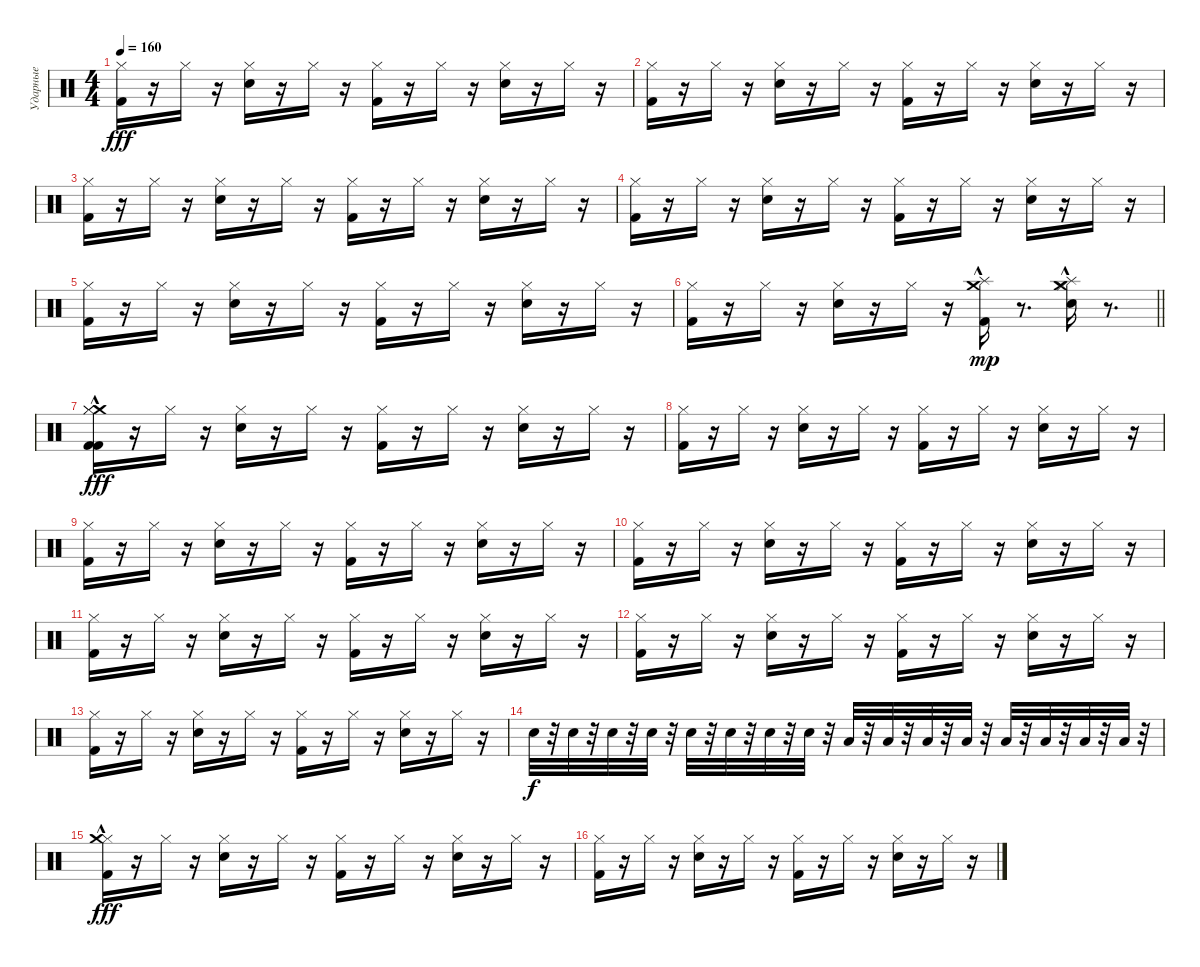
\track ("Ударные" "Ударные") {instrument percussion}
\staff {score}
\articulation defaults
\ts (4 4)
\tempo 160
\clef neutral
\ks c
("Hi-Hat (closed)" "Kick (hit) 2").16{dy fff} r.16 "Hi-Hat (closed)".16 r.16 ("Hi-Hat (closed)" "Electric Snare (hit)").16 r.16 "Hi-Hat (closed)".16 r.16 ("Hi-Hat (closed)" "Kick (hit) 2").16 r.16 "Hi-Hat (closed)".16 r.16 ("Hi-Hat (closed)" "Electric Snare (hit)").16 r.16 "Hi-Hat (closed)".16 r.16 |
("Hi-Hat (closed)" "Kick (hit) 2").16 r.16 "Hi-Hat (closed)".16 r.16 ("Hi-Hat (closed)" "Electric Snare (hit)").16 r.16 "Hi-Hat (closed)".16 r.16 ("Hi-Hat (closed)" "Kick (hit) 2").16 r.16 "Hi-Hat (closed)".16 r.16 ("Hi-Hat (closed)" "Electric Snare (hit)").16 r.16 "Hi-Hat (closed)".16 r.16 |
("Hi-Hat (closed)" "Kick (hit) 2").16 r.16 "Hi-Hat (closed)".16 r.16 ("Hi-Hat (closed)" "Electric Snare (hit)").16 r.16 "Hi-Hat (closed)".16 r.16 ("Hi-Hat (closed)" "Kick (hit) 2").16 r.16 "Hi-Hat (closed)".16 r.16 ("Hi-Hat (closed)" "Electric Snare (hit)").16 r.16 "Hi-Hat (closed)".16 r.16 |
("Hi-Hat (closed)" "Kick (hit) 2").16 r.16 "Hi-Hat (closed)".16 r.16 ("Hi-Hat (closed)" "Electric Snare (hit)").16 r.16 "Hi-Hat (closed)".16 r.16 ("Hi-Hat (closed)" "Kick (hit) 2").16 r.16 "Hi-Hat (closed)".16 r.16 ("Hi-Hat (closed)" "Electric Snare (hit)").16 r.16 "Hi-Hat (closed)".16 r.16 |
("Hi-Hat (closed)" "Kick (hit) 2").16 r.16 "Hi-Hat (closed)".16 r.16 ("Hi-Hat (closed)" "Electric Snare (hit)").16 r.16 "Hi-Hat (closed)".16 r.16 ("Hi-Hat (closed)" "Kick (hit) 2").16 r.16 "Hi-Hat (closed)".16 r.16 ("Hi-Hat (closed)" "Electric Snare (hit)").16 r.16 "Hi-Hat (closed)".16 r.16 |
\barLineRight lightlight
("Hi-Hat (closed)" "Kick (hit) 2").16 r.16 "Hi-Hat (closed)".16 r.16 ("Hi-Hat (closed)" "Electric Snare (hit)").16 r.16 "Hi-Hat (closed)".16 r.16 ("Kick (hit) 2" "Crash medium (hit)"{hac} "Splash (hit)").16{dy mp} r.8{d} ("Hi-Hat (closed)" "Electric Snare (hit)" "Crash medium (hit)"{hac} "Splash (hit)").16 r.8{d} |
("Crash medium (hit)"{hac} "Hi-Hat (closed)" "Kick (hit) 2" "Hi-Hat (closed)" "Kick (hit) 2").16{dy fff} r.16 "Hi-Hat (closed)".16 r.16 ("Hi-Hat (closed)" "Electric Snare (hit)").16 r.16 "Hi-Hat (closed)".16 r.16 ("Hi-Hat (closed)" "Kick (hit) 2").16 r.16 "Hi-Hat (closed)".16 r.16 ("Hi-Hat (closed)" "Electric Snare (hit)").16 r.16 "Hi-Hat (closed)".16 r.16 |
("Hi-Hat (closed)" "Kick (hit) 2").16 r.16 "Hi-Hat (closed)".16 r.16 ("Hi-Hat (closed)" "Electric Snare (hit)").16 r.16 "Hi-Hat (closed)".16 r.16 ("Hi-Hat (closed)" "Kick (hit) 2").16 r.16 "Hi-Hat (closed)".16 r.16 ("Hi-Hat (closed)" "Electric Snare (hit)").16 r.16 "Hi-Hat (closed)".16 r.16 |
("Hi-Hat (closed)" "Kick (hit) 2").16 r.16 "Hi-Hat (closed)".16 r.16 ("Hi-Hat (closed)" "Electric Snare (hit)").16 r.16 "Hi-Hat (closed)".16 r.16 ("Hi-Hat (closed)" "Kick (hit) 2").16 r.16 "Hi-Hat (closed)".16 r.16 ("Hi-Hat (closed)" "Electric Snare (hit)").16 r.16 "Hi-Hat (closed)".16 r.16 |
("Hi-Hat (closed)" "Kick (hit) 2").16 r.16 "Hi-Hat (closed)".16 r.16 ("Hi-Hat (closed)" "Electric Snare (hit)").16 r.16 "Hi-Hat (closed)".16 r.16 ("Hi-Hat (closed)" "Kick (hit) 2").16 r.16 "Hi-Hat (closed)".16 r.16 ("Hi-Hat (closed)" "Electric Snare (hit)").16 r.16 "Hi-Hat (closed)".16 r.16 |
("Hi-Hat (closed)" "Kick (hit) 2").16 r.16 "Hi-Hat (closed)".16 r.16 ("Hi-Hat (closed)" "Electric Snare (hit)").16 r.16 "Hi-Hat (closed)".16 r.16 ("Hi-Hat (closed)" "Kick (hit) 2").16 r.16 "Hi-Hat (closed)".16 r.16 ("Hi-Hat (closed)" "Electric Snare (hit)").16 r.16 "Hi-Hat (closed)".16 r.16 |
("Hi-Hat (closed)" "Kick (hit) 2").16 r.16 "Hi-Hat (closed)".16 r.16 ("Hi-Hat (closed)" "Electric Snare (hit)").16 r.16 "Hi-Hat (closed)".16 r.16 ("Hi-Hat (closed)" "Kick (hit) 2").16 r.16 "Hi-Hat (closed)".16 r.16 ("Hi-Hat (closed)" "Electric Snare (hit)").16 r.16 "Hi-Hat (closed)".16 r.16 |
("Hi-Hat (closed)" "Kick (hit) 2").16 r.16 "Hi-Hat (closed)".16 r.16 ("Hi-Hat (closed)" "Electric Snare (hit)").16 r.16 "Hi-Hat (closed)".16 r.16 ("Hi-Hat (closed)" "Kick (hit) 2").16 r.16 "Hi-Hat (closed)".16 r.16 ("Hi-Hat (closed)" "Electric Snare (hit)").16 r.16 "Hi-Hat (closed)".16 r.16 |
"Electric Snare (hit)".32{dy f} r.32 "Electric Snare (hit)".32 r.32 "Electric Snare (hit)".32 r.32 "Electric Snare (hit)".32 r.32 "Electric Snare (hit)".32 r.32 "Electric Snare (hit)".32 r.32 "Electric Snare (hit)".32 r.32 "Electric Snare (hit)".32 r.32 "Low Tom (hit)".32 r.32 "Low Tom (hit)".32 r.32 "Low Tom (hit)".32 r.32 "Low Tom (hit)".32 r.32 "Low Tom (hit)".32 r.32 "Low Tom (hit)".32 r.32 "Low Tom (hit)".32 r.32 "Low Tom (hit)".32 r.32 |
("Hi-Hat (closed)" "Kick (hit) 2" "Crash medium (hit)"{hac}).16{dy fff} r.16 "Hi-Hat (closed)".16 r.16 ("Hi-Hat (closed)" "Electric Snare (hit)").16 r.16 "Hi-Hat (closed)".16 r.16 ("Hi-Hat (closed)" "Kick (hit) 2").16 r.16 "Hi-Hat (closed)".16 r.16 ("Hi-Hat (closed)" "Electric Snare (hit)").16 r.16 "Hi-Hat (closed)".16 r.16 |
("Hi-Hat (closed)" "Kick (hit) 2").16 r.16 "Hi-Hat (closed)".16 r.16 ("Hi-Hat (closed)" "Electric Snare (hit)").16 r.16 "Hi-Hat (closed)".16 r.16 ("Hi-Hat (closed)" "Kick (hit) 2").16 r.16 "Hi-Hat (closed)".16 r.16 ("Hi-Hat (closed)" "Electric Snare (hit)").16 r.16 "Hi-Hat (closed)".16 r.16
